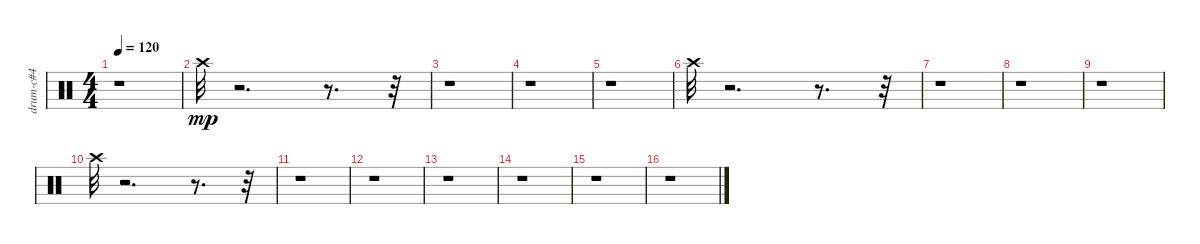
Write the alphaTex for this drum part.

\track ("drum-c#4" "drum-c#4") {instrument percussion}
\staff {score}
\articulation defaults
\ts (4 4)
\tempo 120
\clef neutral
\ks c
r.1{dy mp} |
"Crash high (hit)".32 r.2{d} r.8{d} r.32 |
r.1 |
r.1 |
r.1 |
"Crash high (hit)".32 r.2{d} r.8{d} r.32 |
r.1 |
r.1 |
r.1 |
"Crash high (hit)".32 r.2{d} r.8{d} r.32 |
r.1 |
r.1 |
r.1 |
r.1 |
r.1 |
r.1
